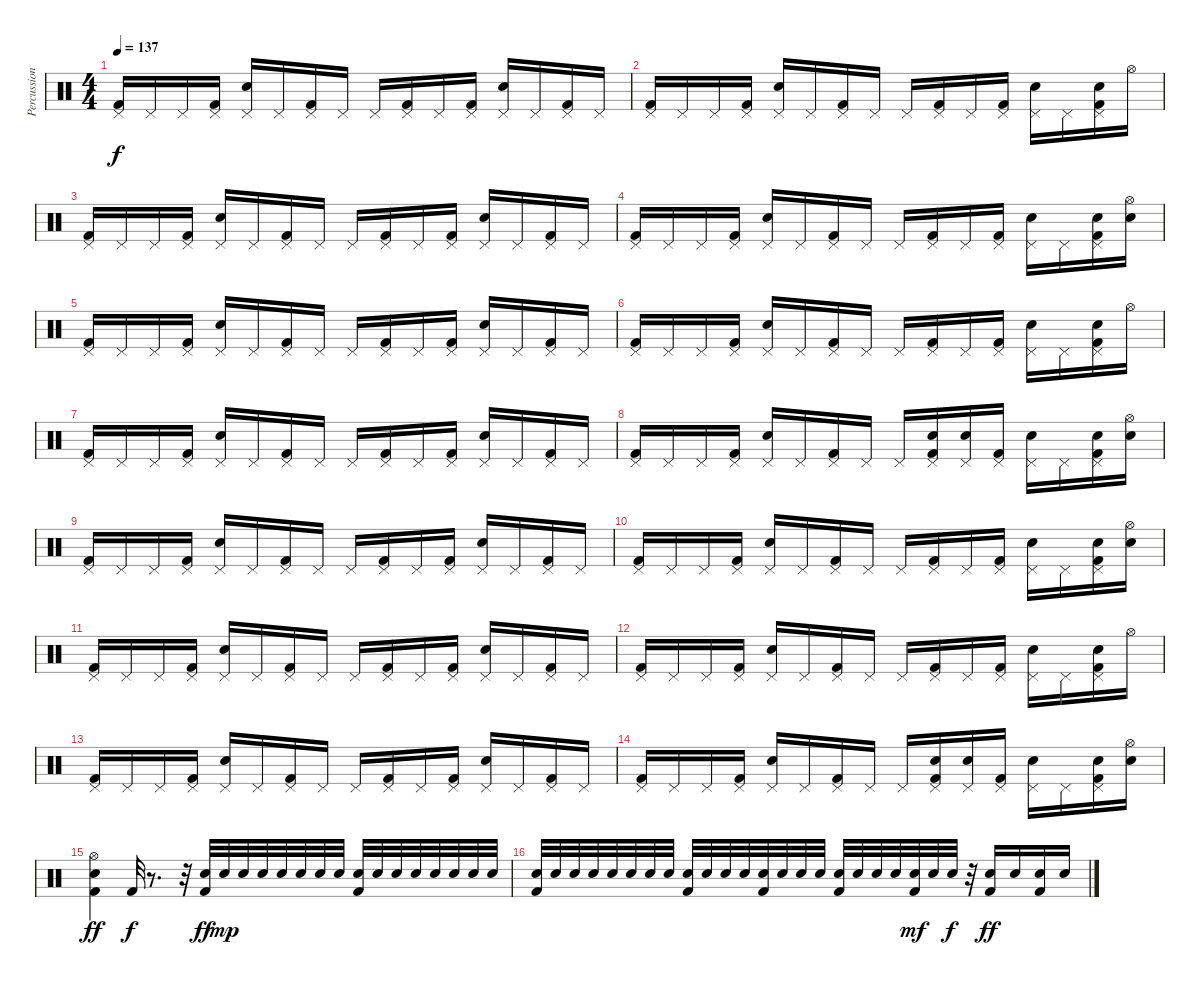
\track ("Percussion" "Percussion") {instrument percussion}
\staff {score}
\articulation defaults
\ts (4 4)
\tempo 137
\clef neutral
\ks c
("Pedal Hi-Hat (hit)" "Kick (hit) 2").16{dy f} "Pedal Hi-Hat (hit)".16 "Pedal Hi-Hat (hit)".16 ("Pedal Hi-Hat (hit)" "Kick (hit) 2").16 ("Pedal Hi-Hat (hit)" "Snare (hit) 2").16 "Pedal Hi-Hat (hit)".16 ("Pedal Hi-Hat (hit)" "Kick (hit) 2").16 "Pedal Hi-Hat (hit)".16 "Pedal Hi-Hat (hit)".16 ("Pedal Hi-Hat (hit)" "Kick (hit) 2").16 "Pedal Hi-Hat (hit)".16 ("Pedal Hi-Hat (hit)" "Kick (hit) 2").16 ("Pedal Hi-Hat (hit)" "Snare (hit) 2").16 "Pedal Hi-Hat (hit)".16 ("Pedal Hi-Hat (hit)" "Kick (hit) 2").16 "Pedal Hi-Hat (hit)".16 |
("Pedal Hi-Hat (hit)" "Kick (hit) 2").16 "Pedal Hi-Hat (hit)".16 "Pedal Hi-Hat (hit)".16 ("Pedal Hi-Hat (hit)" "Kick (hit) 2").16 ("Pedal Hi-Hat (hit)" "Snare (hit) 2").16 "Pedal Hi-Hat (hit)".16 ("Pedal Hi-Hat (hit)" "Kick (hit) 2").16 "Pedal Hi-Hat (hit)".16 "Pedal Hi-Hat (hit)".16 ("Pedal Hi-Hat (hit)" "Kick (hit) 2").16 "Pedal Hi-Hat (hit)".16 ("Pedal Hi-Hat (hit)" "Kick (hit) 2").16 ("Pedal Hi-Hat (hit)" "Snare (hit) 2").16 "Pedal Hi-Hat (hit)".16 ("Pedal Hi-Hat (hit)" "Snare (hit) 2" "Kick (hit) 2").16 "Hi-Hat (open)".16 |
("Pedal Hi-Hat (hit)" "Kick (hit) 2").16 "Pedal Hi-Hat (hit)".16 "Pedal Hi-Hat (hit)".16 ("Pedal Hi-Hat (hit)" "Kick (hit) 2").16 ("Pedal Hi-Hat (hit)" "Snare (hit) 2").16 "Pedal Hi-Hat (hit)".16 ("Pedal Hi-Hat (hit)" "Kick (hit) 2").16 "Pedal Hi-Hat (hit)".16 "Pedal Hi-Hat (hit)".16 ("Pedal Hi-Hat (hit)" "Kick (hit) 2").16 "Pedal Hi-Hat (hit)".16 ("Pedal Hi-Hat (hit)" "Kick (hit) 2").16 ("Pedal Hi-Hat (hit)" "Snare (hit) 2").16 "Pedal Hi-Hat (hit)".16 ("Pedal Hi-Hat (hit)" "Kick (hit) 2").16 "Pedal Hi-Hat (hit)".16 |
("Pedal Hi-Hat (hit)" "Kick (hit) 2").16 "Pedal Hi-Hat (hit)".16 "Pedal Hi-Hat (hit)".16 ("Pedal Hi-Hat (hit)" "Kick (hit) 2").16 ("Pedal Hi-Hat (hit)" "Snare (hit) 2").16 "Pedal Hi-Hat (hit)".16 ("Pedal Hi-Hat (hit)" "Kick (hit) 2").16 "Pedal Hi-Hat (hit)".16 "Pedal Hi-Hat (hit)".16 ("Pedal Hi-Hat (hit)" "Kick (hit) 2").16 "Pedal Hi-Hat (hit)".16 ("Pedal Hi-Hat (hit)" "Kick (hit) 2").16 ("Pedal Hi-Hat (hit)" "Snare (hit) 2").16 "Pedal Hi-Hat (hit)".16 ("Pedal Hi-Hat (hit)" "Snare (hit) 2" "Kick (hit) 2").16 ("Hi-Hat (open)" "Snare (hit) 2").16 |
("Pedal Hi-Hat (hit)" "Kick (hit) 2").16 "Pedal Hi-Hat (hit)".16 "Pedal Hi-Hat (hit)".16 ("Pedal Hi-Hat (hit)" "Kick (hit) 2").16 ("Pedal Hi-Hat (hit)" "Snare (hit) 2").16 "Pedal Hi-Hat (hit)".16 ("Pedal Hi-Hat (hit)" "Kick (hit) 2").16 "Pedal Hi-Hat (hit)".16 "Pedal Hi-Hat (hit)".16 ("Pedal Hi-Hat (hit)" "Kick (hit) 2").16 "Pedal Hi-Hat (hit)".16 ("Pedal Hi-Hat (hit)" "Kick (hit) 2").16 ("Pedal Hi-Hat (hit)" "Snare (hit) 2").16 "Pedal Hi-Hat (hit)".16 ("Pedal Hi-Hat (hit)" "Kick (hit) 2").16 "Pedal Hi-Hat (hit)".16 |
("Pedal Hi-Hat (hit)" "Kick (hit) 2").16 "Pedal Hi-Hat (hit)".16 "Pedal Hi-Hat (hit)".16 ("Pedal Hi-Hat (hit)" "Kick (hit) 2").16 ("Pedal Hi-Hat (hit)" "Snare (hit) 2").16 "Pedal Hi-Hat (hit)".16 ("Pedal Hi-Hat (hit)" "Kick (hit) 2").16 "Pedal Hi-Hat (hit)".16 "Pedal Hi-Hat (hit)".16 ("Pedal Hi-Hat (hit)" "Kick (hit) 2").16 "Pedal Hi-Hat (hit)".16 ("Pedal Hi-Hat (hit)" "Kick (hit) 2").16 ("Pedal Hi-Hat (hit)" "Snare (hit) 2").16 "Pedal Hi-Hat (hit)".16 ("Pedal Hi-Hat (hit)" "Snare (hit) 2" "Kick (hit) 2").16 "Hi-Hat (open)".16 |
("Pedal Hi-Hat (hit)" "Kick (hit) 2").16 "Pedal Hi-Hat (hit)".16 "Pedal Hi-Hat (hit)".16 ("Pedal Hi-Hat (hit)" "Kick (hit) 2").16 ("Pedal Hi-Hat (hit)" "Snare (hit) 2").16 "Pedal Hi-Hat (hit)".16 ("Pedal Hi-Hat (hit)" "Kick (hit) 2").16 "Pedal Hi-Hat (hit)".16 "Pedal Hi-Hat (hit)".16 ("Pedal Hi-Hat (hit)" "Kick (hit) 2").16 "Pedal Hi-Hat (hit)".16 ("Pedal Hi-Hat (hit)" "Kick (hit) 2").16 ("Pedal Hi-Hat (hit)" "Snare (hit) 2").16 "Pedal Hi-Hat (hit)".16 ("Pedal Hi-Hat (hit)" "Kick (hit) 2").16 "Pedal Hi-Hat (hit)".16 |
("Pedal Hi-Hat (hit)" "Kick (hit) 2").16 "Pedal Hi-Hat (hit)".16 "Pedal Hi-Hat (hit)".16 ("Pedal Hi-Hat (hit)" "Kick (hit) 2").16 ("Pedal Hi-Hat (hit)" "Snare (hit) 2").16 "Pedal Hi-Hat (hit)".16 ("Pedal Hi-Hat (hit)" "Kick (hit) 2").16 "Pedal Hi-Hat (hit)".16 "Pedal Hi-Hat (hit)".16 ("Pedal Hi-Hat (hit)" "Snare (hit) 2" "Kick (hit) 2").16 ("Pedal Hi-Hat (hit)" "Snare (hit) 2").16 ("Pedal Hi-Hat (hit)" "Kick (hit) 2").16 ("Pedal Hi-Hat (hit)" "Snare (hit) 2").16 "Pedal Hi-Hat (hit)".16 ("Pedal Hi-Hat (hit)" "Snare (hit) 2" "Kick (hit) 2").16 ("Hi-Hat (open)" "Snare (hit) 2").16 |
("Pedal Hi-Hat (hit)" "Kick (hit) 2").16 "Pedal Hi-Hat (hit)".16 "Pedal Hi-Hat (hit)".16 ("Pedal Hi-Hat (hit)" "Kick (hit) 2").16 ("Pedal Hi-Hat (hit)" "Snare (hit) 2").16 "Pedal Hi-Hat (hit)".16 ("Pedal Hi-Hat (hit)" "Kick (hit) 2").16 "Pedal Hi-Hat (hit)".16 "Pedal Hi-Hat (hit)".16 ("Pedal Hi-Hat (hit)" "Kick (hit) 2").16 "Pedal Hi-Hat (hit)".16 ("Pedal Hi-Hat (hit)" "Kick (hit) 2").16 ("Pedal Hi-Hat (hit)" "Snare (hit) 2").16 "Pedal Hi-Hat (hit)".16 ("Pedal Hi-Hat (hit)" "Kick (hit) 2").16 "Pedal Hi-Hat (hit)".16 |
("Pedal Hi-Hat (hit)" "Kick (hit) 2").16 "Pedal Hi-Hat (hit)".16 "Pedal Hi-Hat (hit)".16 ("Pedal Hi-Hat (hit)" "Kick (hit) 2").16 ("Pedal Hi-Hat (hit)" "Snare (hit) 2").16 "Pedal Hi-Hat (hit)".16 ("Pedal Hi-Hat (hit)" "Kick (hit) 2").16 "Pedal Hi-Hat (hit)".16 "Pedal Hi-Hat (hit)".16 ("Pedal Hi-Hat (hit)" "Kick (hit) 2").16 "Pedal Hi-Hat (hit)".16 ("Pedal Hi-Hat (hit)" "Kick (hit) 2").16 ("Pedal Hi-Hat (hit)" "Snare (hit) 2").16 "Pedal Hi-Hat (hit)".16 ("Pedal Hi-Hat (hit)" "Snare (hit) 2" "Kick (hit) 2").16 ("Hi-Hat (open)" "Snare (hit) 2").16 |
("Pedal Hi-Hat (hit)" "Kick (hit) 2").16 "Pedal Hi-Hat (hit)".16 "Pedal Hi-Hat (hit)".16 ("Pedal Hi-Hat (hit)" "Kick (hit) 2").16 ("Pedal Hi-Hat (hit)" "Snare (hit) 2").16 "Pedal Hi-Hat (hit)".16 ("Pedal Hi-Hat (hit)" "Kick (hit) 2").16 "Pedal Hi-Hat (hit)".16 "Pedal Hi-Hat (hit)".16 ("Pedal Hi-Hat (hit)" "Kick (hit) 2").16 "Pedal Hi-Hat (hit)".16 ("Pedal Hi-Hat (hit)" "Kick (hit) 2").16 ("Pedal Hi-Hat (hit)" "Snare (hit) 2").16 "Pedal Hi-Hat (hit)".16 ("Pedal Hi-Hat (hit)" "Kick (hit) 2").16 "Pedal Hi-Hat (hit)".16 |
("Pedal Hi-Hat (hit)" "Kick (hit) 2").16 "Pedal Hi-Hat (hit)".16 "Pedal Hi-Hat (hit)".16 ("Pedal Hi-Hat (hit)" "Kick (hit) 2").16 ("Pedal Hi-Hat (hit)" "Snare (hit) 2").16 "Pedal Hi-Hat (hit)".16 ("Pedal Hi-Hat (hit)" "Kick (hit) 2").16 "Pedal Hi-Hat (hit)".16 "Pedal Hi-Hat (hit)".16 ("Pedal Hi-Hat (hit)" "Kick (hit) 2").16 "Pedal Hi-Hat (hit)".16 ("Pedal Hi-Hat (hit)" "Kick (hit) 2").16 ("Pedal Hi-Hat (hit)" "Snare (hit) 2").16 "Pedal Hi-Hat (hit)".16 ("Pedal Hi-Hat (hit)" "Snare (hit) 2" "Kick (hit) 2").16 "Hi-Hat (open)".16 |
("Pedal Hi-Hat (hit)" "Kick (hit) 2").16 "Pedal Hi-Hat (hit)".16 "Pedal Hi-Hat (hit)".16 ("Pedal Hi-Hat (hit)" "Kick (hit) 2").16 ("Pedal Hi-Hat (hit)" "Snare (hit) 2").16 "Pedal Hi-Hat (hit)".16 ("Pedal Hi-Hat (hit)" "Kick (hit) 2").16 "Pedal Hi-Hat (hit)".16 "Pedal Hi-Hat (hit)".16 ("Pedal Hi-Hat (hit)" "Kick (hit) 2").16 "Pedal Hi-Hat (hit)".16 ("Pedal Hi-Hat (hit)" "Kick (hit) 2").16 ("Pedal Hi-Hat (hit)" "Snare (hit) 2").16 "Pedal Hi-Hat (hit)".16 ("Pedal Hi-Hat (hit)" "Kick (hit) 2").16 "Pedal Hi-Hat (hit)".16 |
("Pedal Hi-Hat (hit)" "Kick (hit) 2").16 "Pedal Hi-Hat (hit)".16 "Pedal Hi-Hat (hit)".16 ("Pedal Hi-Hat (hit)" "Kick (hit) 2").16 ("Pedal Hi-Hat (hit)" "Snare (hit) 2").16 "Pedal Hi-Hat (hit)".16 ("Pedal Hi-Hat (hit)" "Kick (hit) 2").16 "Pedal Hi-Hat (hit)".16 "Pedal Hi-Hat (hit)".16 ("Pedal Hi-Hat (hit)" "Snare (hit) 2" "Kick (hit) 2").16 ("Pedal Hi-Hat (hit)" "Snare (hit) 2").16 ("Pedal Hi-Hat (hit)" "Kick (hit) 2").16 ("Pedal Hi-Hat (hit)" "Snare (hit) 2").16 "Pedal Hi-Hat (hit)".16 ("Pedal Hi-Hat (hit)" "Snare (hit) 2" "Kick (hit) 2").16 ("Hi-Hat (open)" "Snare (hit) 2").16 |
("Snare (hit) 2" "Hi-Hat (open)" "Kick (hit) 2").4{dy ff} "Kick (hit) 2".32{dy f} r.8{d} r.32 ("Snare (hit) 2" "Kick (hit) 2").32{dy ff} "Snare (hit) 2".32{dy mp} "Snare (hit) 2".32 "Snare (hit) 2".32 "Snare (hit) 2".32 "Snare (hit) 2".32 "Snare (hit) 2".32 "Snare (hit) 2".32 ("Snare (hit) 2" "Kick (hit) 2").32 "Snare (hit) 2".32 "Snare (hit) 2".32 "Snare (hit) 2".32 "Snare (hit) 2".32 "Snare (hit) 2".32 "Snare (hit) 2".32 "Snare (hit) 2".32 |
("Snare (hit) 2" "Kick (hit) 2").32 "Snare (hit) 2".32 "Snare (hit) 2".32 "Snare (hit) 2".32 "Snare (hit) 2".32 "Snare (hit) 2".32 "Snare (hit) 2".32 "Snare (hit) 2".32 ("Snare (hit) 2" "Kick (hit) 2").32 "Snare (hit) 2".32 "Snare (hit) 2".32 "Snare (hit) 2".32 ("Snare (hit) 2" "Kick (hit) 2").32 "Snare (hit) 2".32 "Snare (hit) 2".32 "Snare (hit) 2".32 ("Snare (hit) 2" "Kick (hit) 2").32 "Snare (hit) 2".32 "Snare (hit) 2".32 "Snare (hit) 2".32 ("Snare (hit) 2" "Kick (hit) 2").32{dy mf} "Snare (hit) 2".32 "Snare (hit) 2".32{dy f} r.32 ("Snare (hit) 2" "Kick (hit) 2").16{dy ff} "Snare (hit) 2".16 ("Snare (hit) 2" "Kick (hit) 2").16 "Snare (hit) 2".16
